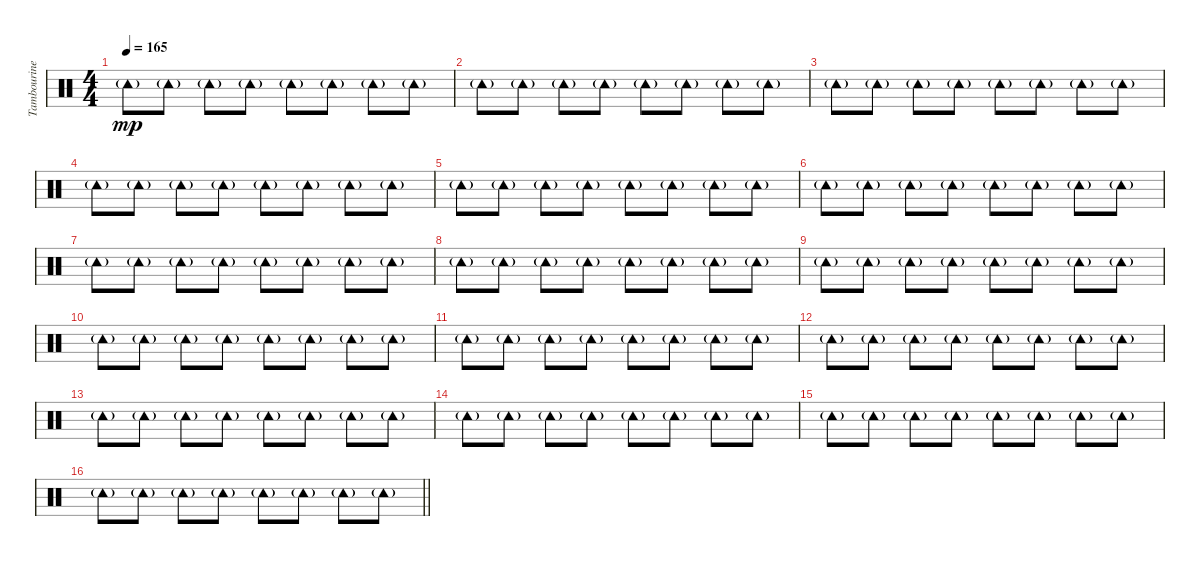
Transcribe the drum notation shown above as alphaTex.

\track ("Tambourine" "Tambourine") {instrument percussion}
\staff {score}
\articulation defaults
\ts (4 4)
\tempo 165
\clef neutral
\ks c "Tambourine (hit)"{g}.8{dy mp} "Tambourine (hit)"{g}.8 "Tambourine (hit)"{g}.8 "Tambourine (hit)"{g}.8 "Tambourine (hit)"{g}.8 "Tambourine (hit)"{g}.8 "Tambourine (hit)"{g}.8 "Tambourine (hit)"{g}.8
|
"Tambourine (hit)"{g}.8 "Tambourine (hit)"{g}.8 "Tambourine (hit)"{g}.8 "Tambourine (hit)"{g}.8 "Tambourine (hit)"{g}.8 "Tambourine (hit)"{g}.8 "Tambourine (hit)"{g}.8 "Tambourine (hit)"{g}.8 |
"Tambourine (hit)"{g}.8 "Tambourine (hit)"{g}.8 "Tambourine (hit)"{g}.8 "Tambourine (hit)"{g}.8 "Tambourine (hit)"{g}.8 "Tambourine (hit)"{g}.8 "Tambourine (hit)"{g}.8 "Tambourine (hit)"{g}.8 |
"Tambourine (hit)"{g}.8 "Tambourine (hit)"{g}.8 "Tambourine (hit)"{g}.8 "Tambourine (hit)"{g}.8 "Tambourine (hit)"{g}.8 "Tambourine (hit)"{g}.8 "Tambourine (hit)"{g}.8 "Tambourine (hit)"{g}.8 |
"Tambourine (hit)"{g}.8 "Tambourine (hit)"{g}.8 "Tambourine (hit)"{g}.8 "Tambourine (hit)"{g}.8 "Tambourine (hit)"{g}.8 "Tambourine (hit)"{g}.8 "Tambourine (hit)"{g}.8 "Tambourine (hit)"{g}.8 |
"Tambourine (hit)"{g}.8 "Tambourine (hit)"{g}.8 "Tambourine (hit)"{g}.8 "Tambourine (hit)"{g}.8 "Tambourine (hit)"{g}.8 "Tambourine (hit)"{g}.8 "Tambourine (hit)"{g}.8 "Tambourine (hit)"{g}.8 |
"Tambourine (hit)"{g}.8 "Tambourine (hit)"{g}.8 "Tambourine (hit)"{g}.8 "Tambourine (hit)"{g}.8 "Tambourine (hit)"{g}.8 "Tambourine (hit)"{g}.8 "Tambourine (hit)"{g}.8 "Tambourine (hit)"{g}.8 |
"Tambourine (hit)"{g}.8 "Tambourine (hit)"{g}.8 "Tambourine (hit)"{g}.8 "Tambourine (hit)"{g}.8 "Tambourine (hit)"{g}.8 "Tambourine (hit)"{g}.8 "Tambourine (hit)"{g}.8 "Tambourine (hit)"{g}.8 |
"Tambourine (hit)"{g}.8 "Tambourine (hit)"{g}.8 "Tambourine (hit)"{g}.8 "Tambourine (hit)"{g}.8 "Tambourine (hit)"{g}.8 "Tambourine (hit)"{g}.8 "Tambourine (hit)"{g}.8 "Tambourine (hit)"{g}.8 |
"Tambourine (hit)"{g}.8 "Tambourine (hit)"{g}.8 "Tambourine (hit)"{g}.8 "Tambourine (hit)"{g}.8 "Tambourine (hit)"{g}.8 "Tambourine (hit)"{g}.8 "Tambourine (hit)"{g}.8 "Tambourine (hit)"{g}.8 |
"Tambourine (hit)"{g}.8 "Tambourine (hit)"{g}.8 "Tambourine (hit)"{g}.8 "Tambourine (hit)"{g}.8 "Tambourine (hit)"{g}.8 "Tambourine (hit)"{g}.8 "Tambourine (hit)"{g}.8 "Tambourine (hit)"{g}.8 |
"Tambourine (hit)"{g}.8 "Tambourine (hit)"{g}.8 "Tambourine (hit)"{g}.8 "Tambourine (hit)"{g}.8 "Tambourine (hit)"{g}.8 "Tambourine (hit)"{g}.8 "Tambourine (hit)"{g}.8 "Tambourine (hit)"{g}.8 |
"Tambourine (hit)"{g}.8 "Tambourine (hit)"{g}.8 "Tambourine (hit)"{g}.8 "Tambourine (hit)"{g}.8 "Tambourine (hit)"{g}.8 "Tambourine (hit)"{g}.8 "Tambourine (hit)"{g}.8 "Tambourine (hit)"{g}.8 |
"Tambourine (hit)"{g}.8 "Tambourine (hit)"{g}.8 "Tambourine (hit)"{g}.8 "Tambourine (hit)"{g}.8 "Tambourine (hit)"{g}.8 "Tambourine (hit)"{g}.8 "Tambourine (hit)"{g}.8 "Tambourine (hit)"{g}.8 |
"Tambourine (hit)"{g}.8 "Tambourine (hit)"{g}.8 "Tambourine (hit)"{g}.8 "Tambourine (hit)"{g}.8 "Tambourine (hit)"{g}.8 "Tambourine (hit)"{g}.8 "Tambourine (hit)"{g}.8 "Tambourine (hit)"{g}.8 |
\barLineRight lightlight "Tambourine (hit)"{g}.8 "Tambourine (hit)"{g}.8 "Tambourine (hit)"{g}.8 "Tambourine (hit)"{g}.8 "Tambourine (hit)"{g}.8 "Tambourine (hit)"{g}.8 "Tambourine (hit)"{g}.8 "Tambourine (hit)"{g}.8
